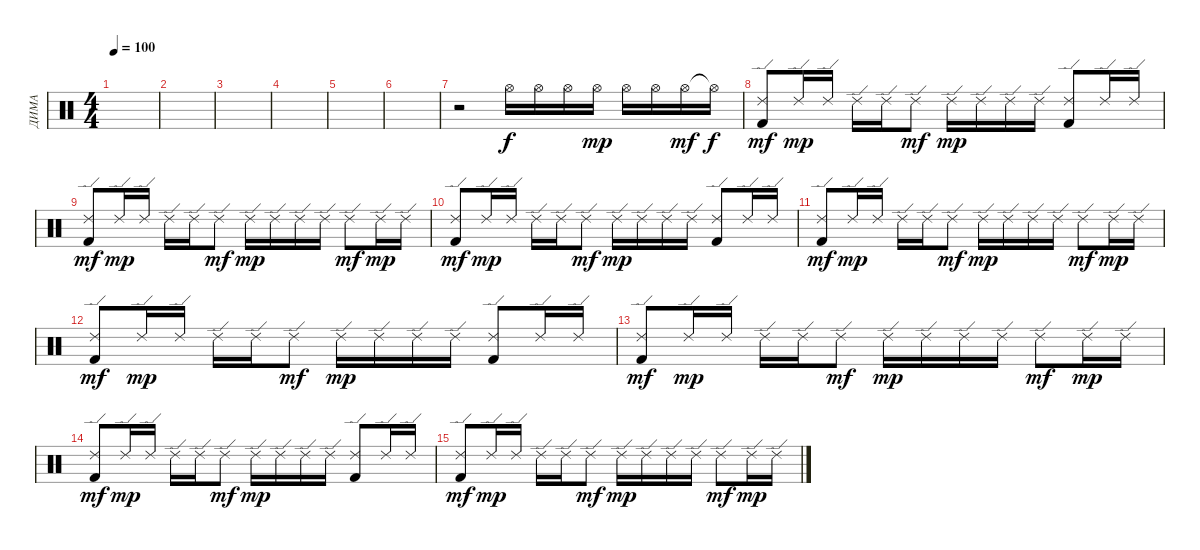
\track ("ДИМА" "ДИМА") {instrument percussion}
\staff {score}
\articulation defaults
\ts (4 4)
\tempo 100
\clef neutral
\ks c
|
|
|
|
|
|
r.2 "Hi-Hat (open)".16 "Hi-Hat (open)".16 "Hi-Hat (open)".16 "Hi-Hat (open)".16{dy mp} "Hi-Hat (open)".16 "Hi-Hat (open)".16 "Hi-Hat (open)".16{dy mf} "Hi-Hat (open)"{t}.16{dy f} |
("Ride (edge) 2" "Kick (hit) 2").8{dy mf} "Ride (edge) 2".16{dy mp} "Ride (edge) 2".16 "Ride (edge) 2".16 "Ride (edge) 2".16 "Ride (edge) 2".8{dy mf} "Ride (edge) 2".16{dy mp} "Ride (edge) 2".16 "Ride (edge) 2".16 "Ride (edge) 2".16 ("Ride (edge) 2" "Kick (hit) 2").8 "Ride (edge) 2".16 "Ride (edge) 2".16 |
("Ride (edge) 2" "Kick (hit) 2").8{dy mf} "Ride (edge) 2".16{dy mp} "Ride (edge) 2".16 "Ride (edge) 2".16 "Ride (edge) 2".16 "Ride (edge) 2".8{dy mf} "Ride (edge) 2".16{dy mp} "Ride (edge) 2".16 "Ride (edge) 2".16 "Ride (edge) 2".16 "Ride (edge) 2".8{dy mf} "Ride (edge) 2".16{dy mp} "Ride (edge) 2".16 |
("Ride (edge) 2" "Kick (hit) 2").8{dy mf} "Ride (edge) 2".16{dy mp} "Ride (edge) 2".16 "Ride (edge) 2".16 "Ride (edge) 2".16 "Ride (edge) 2".8{dy mf} "Ride (edge) 2".16{dy mp} "Ride (edge) 2".16 "Ride (edge) 2".16 "Ride (edge) 2".16 ("Ride (edge) 2" "Kick (hit) 2").8 "Ride (edge) 2".16 "Ride (edge) 2".16 |
("Ride (edge) 2" "Kick (hit) 2").8{dy mf} "Ride (edge) 2".16{dy mp} "Ride (edge) 2".16 "Ride (edge) 2".16 "Ride (edge) 2".16 "Ride (edge) 2".8{dy mf} "Ride (edge) 2".16{dy mp} "Ride (edge) 2".16 "Ride (edge) 2".16 "Ride (edge) 2".16 "Ride (edge) 2".8{dy mf} "Ride (edge) 2".16{dy mp} "Ride (edge) 2".16 |
("Ride (edge) 2" "Kick (hit) 2").8{dy mf} "Ride (edge) 2".16{dy mp} "Ride (edge) 2".16 "Ride (edge) 2".16 "Ride (edge) 2".16 "Ride (edge) 2".8{dy mf} "Ride (edge) 2".16{dy mp} "Ride (edge) 2".16 "Ride (edge) 2".16 "Ride (edge) 2".16 ("Ride (edge) 2" "Kick (hit) 2").8 "Ride (edge) 2".16 "Ride (edge) 2".16 |
("Ride (edge) 2" "Kick (hit) 2").8{dy mf} "Ride (edge) 2".16{dy mp} "Ride (edge) 2".16 "Ride (edge) 2".16 "Ride (edge) 2".16 "Ride (edge) 2".8{dy mf} "Ride (edge) 2".16{dy mp} "Ride (edge) 2".16 "Ride (edge) 2".16 "Ride (edge) 2".16 "Ride (edge) 2".8{dy mf} "Ride (edge) 2".16{dy mp} "Ride (edge) 2".16 |
("Ride (edge) 2" "Kick (hit) 2").8{dy mf} "Ride (edge) 2".16{dy mp} "Ride (edge) 2".16 "Ride (edge) 2".16 "Ride (edge) 2".16 "Ride (edge) 2".8{dy mf} "Ride (edge) 2".16{dy mp} "Ride (edge) 2".16 "Ride (edge) 2".16 "Ride (edge) 2".16 ("Ride (edge) 2" "Kick (hit) 2").8 "Ride (edge) 2".16 "Ride (edge) 2".16 |
("Ride (edge) 2" "Kick (hit) 2").8{dy mf} "Ride (edge) 2".16{dy mp} "Ride (edge) 2".16 "Ride (edge) 2".16 "Ride (edge) 2".16 "Ride (edge) 2".8{dy mf} "Ride (edge) 2".16{dy mp} "Ride (edge) 2".16 "Ride (edge) 2".16 "Ride (edge) 2".16 "Ride (edge) 2".8{dy mf} "Ride (edge) 2".16{dy mp} "Ride (edge) 2".16
